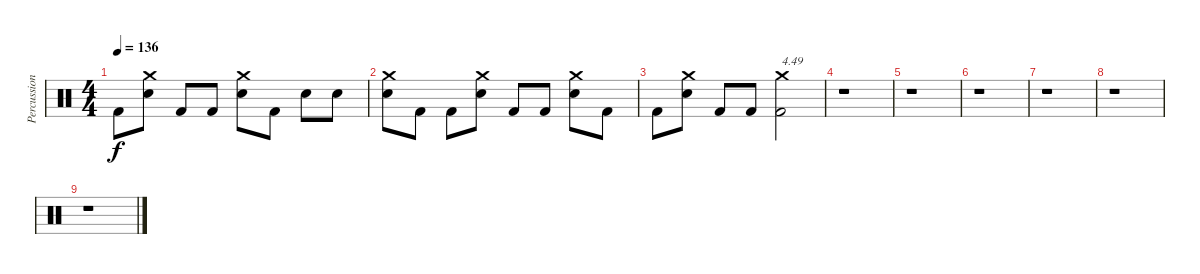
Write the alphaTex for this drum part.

\track ("Percussions" "Percussion") {instrument percussion}
\staff {score}
\articulation defaults
\ts (4 4)
\tempo 136
\clef neutral
\ks c "Kick (hit) 2".8{dy f}
("Electric Snare (hit)" "Crash medium (hit)").8 "Kick (hit) 2".8 "Kick (hit) 2".8 ("Electric Snare (hit)" "Crash medium (hit)").8 "Kick (hit) 2".8 "Electric Snare (hit)".8 "Electric Snare (hit)".8 |
("Electric Snare (hit)" "Crash medium (hit)").8 "Kick (hit) 2".8 "Kick (hit) 2".8 ("Electric Snare (hit)" "Crash medium (hit)").8 "Kick (hit) 2".8 "Kick (hit) 2".8 ("Electric Snare (hit)" "Crash medium (hit)").8 "Kick (hit) 2".8 |
"Kick (hit) 2".8 ("Electric Snare (hit)" "Crash medium (hit)").8 "Kick (hit) 2".8 "Kick (hit) 2".8 ("Kick (hit) 2" "Crash medium (hit)").2{txt "4.49"} |
r.1 |
r.1 |
r.1 |
r.1 |
r.1 |
r.1
